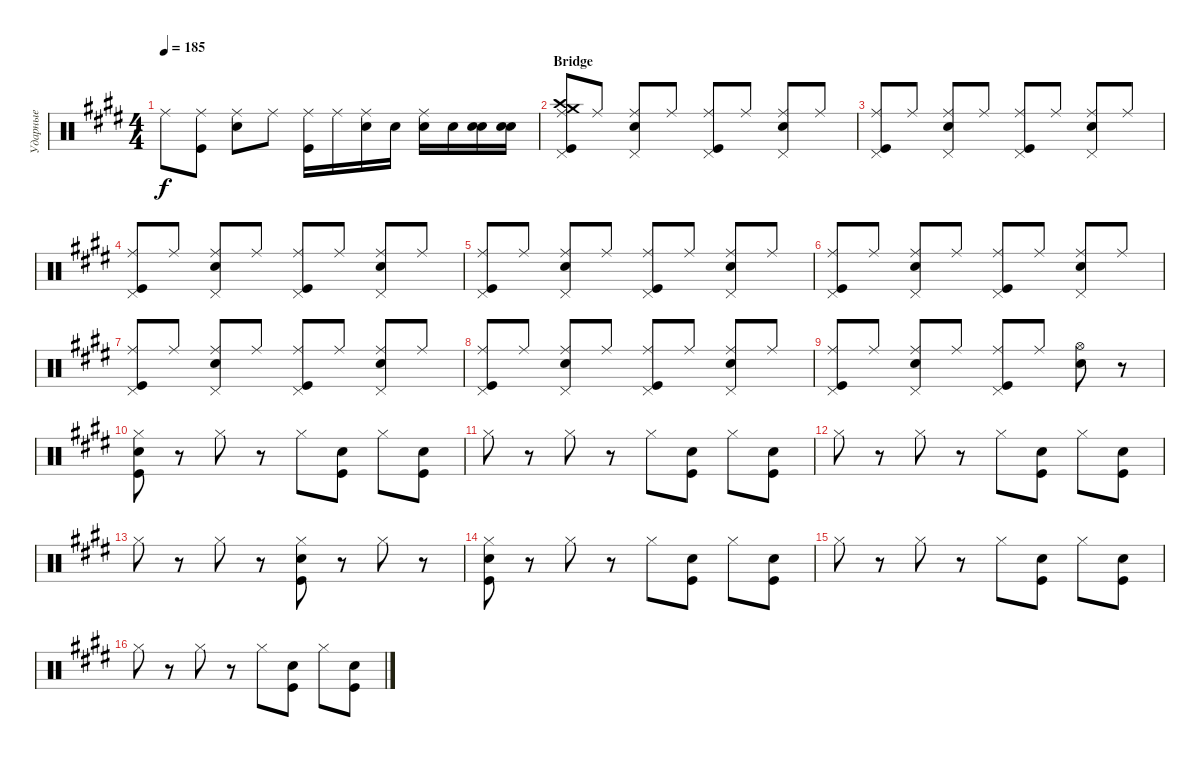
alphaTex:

\track ("Ударные" "Ударные") {instrument percussion}
\staff {score}
\articulation defaults
\ts (4 4)
\tempo 185
\clef neutral
\ks c#minor "Ride (middle)".8{dy f}
("Ride (middle)" "Kick (hit)").8 ("Ride (middle)" "Electric Snare (hit)").8 "Ride (middle)".8 ("Kick (hit)" "Ride (middle)").16 "Ride (middle)".16 ("Electric Snare (hit)" "Ride (middle)").16 "Electric Snare (hit)".16 ("Electric Snare (hit)" "Ride (middle)").16 "Electric Snare (hit)".16 ("Electric Snare (hit)" "Electric Snare (hit)").16 ("Electric Snare (hit)" "Electric Snare (hit)").16 |
\section ("" "Bridge")
("Crash high (hit)" "Crash medium (hit)" "Pedal Hi-Hat (hit)" "Ride (middle)" "Kick (hit)").8 "Ride (middle)".8 ("Pedal Hi-Hat (hit)" "Ride (middle)" "Electric Snare (hit)").8 "Ride (middle)".8 ("Pedal Hi-Hat (hit)" "Ride (middle)" "Kick (hit)").8 "Ride (middle)".8 ("Pedal Hi-Hat (hit)" "Ride (middle)" "Electric Snare (hit)").8 "Ride (middle)".8 |
("Kick (hit)" "Pedal Hi-Hat (hit)" "Ride (middle)").8 "Ride (middle)".8 ("Electric Snare (hit)" "Pedal Hi-Hat (hit)" "Ride (middle)").8 "Ride (middle)".8 ("Kick (hit)" "Pedal Hi-Hat (hit)" "Ride (middle)").8 "Ride (middle)".8 ("Pedal Hi-Hat (hit)" "Ride (middle)" "Electric Snare (hit)").8 "Ride (middle)".8 |
("Kick (hit)" "Pedal Hi-Hat (hit)" "Ride (middle)").8 "Ride (middle)".8 ("Pedal Hi-Hat (hit)" "Ride (middle)" "Electric Snare (hit)").8 "Ride (middle)".8 ("Kick (hit)" "Pedal Hi-Hat (hit)" "Ride (middle)").8 "Ride (middle)".8 ("Pedal Hi-Hat (hit)" "Ride (middle)" "Electric Snare (hit)").8 "Ride (middle)".8 |
("Kick (hit)" "Pedal Hi-Hat (hit)" "Ride (middle)").8 "Ride (middle)".8 ("Pedal Hi-Hat (hit)" "Ride (middle)" "Electric Snare (hit)").8 "Ride (middle)".8 ("Kick (hit)" "Pedal Hi-Hat (hit)" "Ride (middle)").8 "Ride (middle)".8 ("Pedal Hi-Hat (hit)" "Ride (middle)" "Electric Snare (hit)").8 "Ride (middle)".8 |
("Kick (hit)" "Pedal Hi-Hat (hit)" "Ride (middle)").8 "Ride (middle)".8 ("Pedal Hi-Hat (hit)" "Ride (middle)" "Electric Snare (hit)").8 "Ride (middle)".8 ("Kick (hit)" "Pedal Hi-Hat (hit)" "Ride (middle)").8 "Ride (middle)".8 ("Pedal Hi-Hat (hit)" "Ride (middle)" "Electric Snare (hit)").8 "Ride (middle)".8 |
("Kick (hit)" "Pedal Hi-Hat (hit)" "Ride (middle)").8 "Ride (middle)".8 ("Pedal Hi-Hat (hit)" "Ride (middle)" "Electric Snare (hit)").8 "Ride (middle)".8 ("Kick (hit)" "Pedal Hi-Hat (hit)" "Ride (middle)").8 "Ride (middle)".8 ("Pedal Hi-Hat (hit)" "Ride (middle)" "Electric Snare (hit)").8 "Ride (middle)".8 |
("Kick (hit)" "Pedal Hi-Hat (hit)" "Ride (middle)").8 "Ride (middle)".8 ("Pedal Hi-Hat (hit)" "Ride (middle)" "Electric Snare (hit)").8 "Ride (middle)".8 ("Kick (hit)" "Pedal Hi-Hat (hit)" "Ride (middle)").8 "Ride (middle)".8 ("Pedal Hi-Hat (hit)" "Ride (middle)" "Electric Snare (hit)").8 "Ride (middle)".8 |
("Kick (hit)" "Pedal Hi-Hat (hit)" "Ride (middle)").8 "Ride (middle)".8 ("Pedal Hi-Hat (hit)" "Ride (middle)" "Electric Snare (hit)").8 "Ride (middle)".8 ("Pedal Hi-Hat (hit)" "Kick (hit)" "Ride (middle)").8 "Ride (middle)".8 ("Hi-Hat (open)" "Electric Snare (hit)").8 r.8 |
("Electric Snare (hit)" "Kick (hit)" "Hi-Hat (closed)").8 r.8 "Hi-Hat (closed)".8 r.8 "Hi-Hat (closed)".8 ("Kick (hit)" "Electric Snare (hit)").8 "Hi-Hat (closed)".8 ("Electric Snare (hit)" "Kick (hit)").8 |
"Hi-Hat (closed)".8 r.8 "Hi-Hat (closed)".8 r.8 "Hi-Hat (closed)".8 ("Kick (hit)" "Electric Snare (hit)").8 "Hi-Hat (closed)".8 ("Electric Snare (hit)" "Kick (hit)").8 |
"Hi-Hat (closed)".8 r.8 "Hi-Hat (closed)".8 r.8 "Hi-Hat (closed)".8 ("Kick (hit)" "Electric Snare (hit)").8 "Hi-Hat (closed)".8 ("Kick (hit)" "Electric Snare (hit)").8 |
"Hi-Hat (closed)".8 r.8 "Hi-Hat (closed)".8 r.8 ("Kick (hit)" "Electric Snare (hit)" "Hi-Hat (closed)").8 r.8 "Hi-Hat (closed)".8 r.8 |
("Hi-Hat (closed)" "Electric Snare (hit)" "Kick (hit)").8 r.8 "Hi-Hat (closed)".8 r.8 "Hi-Hat (closed)".8 ("Kick (hit)" "Electric Snare (hit)").8 "Hi-Hat (closed)".8 ("Kick (hit)" "Electric Snare (hit)").8 |
"Hi-Hat (closed)".8 r.8 "Hi-Hat (closed)".8 r.8 "Hi-Hat (closed)".8 ("Kick (hit)" "Electric Snare (hit)").8 "Hi-Hat (closed)".8 ("Kick (hit)" "Electric Snare (hit)").8 |
"Hi-Hat (closed)".8 r.8 "Hi-Hat (closed)".8 r.8 "Hi-Hat (closed)".8 ("Kick (hit)" "Electric Snare (hit)").8 "Hi-Hat (closed)".8 ("Kick (hit)" "Electric Snare (hit)").8
